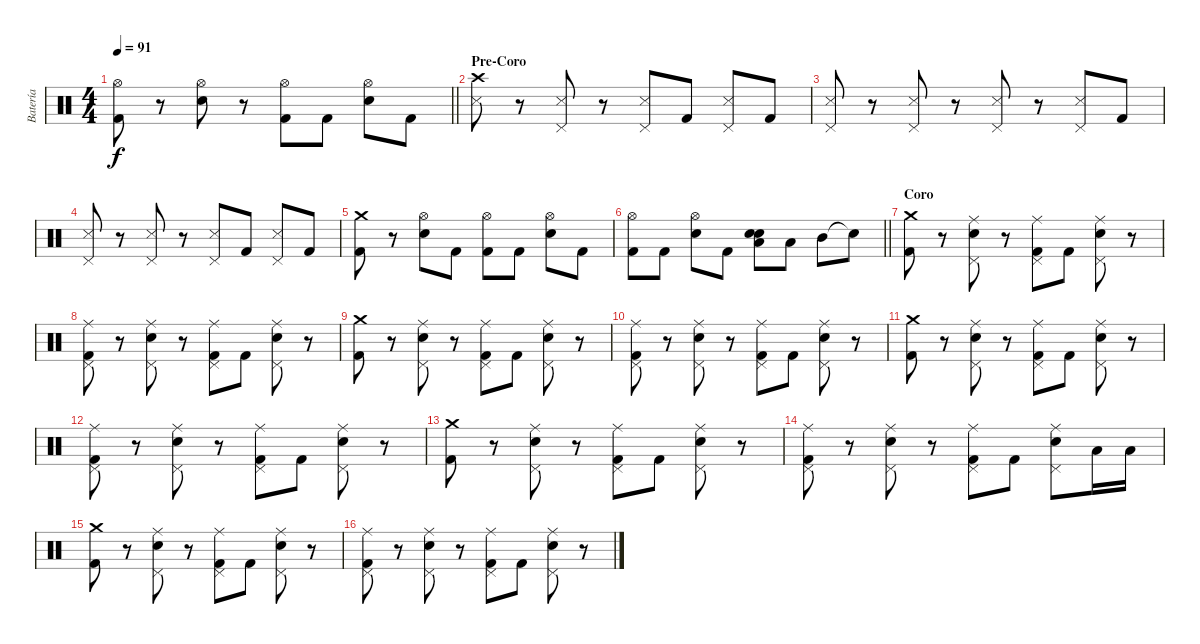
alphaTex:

\track ("Batería" "Batería") {instrument percussion}
\staff {score}
\articulation defaults
\ts (4 4)
\tempo 91
\clef neutral
\barLineRight lightlight
\ks c
("Hi-Hat (open)" "Kick (hit) 2").8{dy f} r.8 ("Hi-Hat (open)" "Snare (hit) 2").8 r.8 ("Hi-Hat (open)" "Kick (hit) 2").8 "Kick (hit) 2".8 ("Hi-Hat (open)" "Snare (hit) 2").8 "Kick (hit) 2".8 |
\section ("" "Pre-Coro")
("Crash high (hit)" "Metronome (hit)").8 r.8 ("Pedal Hi-Hat (hit)" "Metronome (hit)").8 r.8 ("Pedal Hi-Hat (hit)" "Metronome (hit)").8 "Kick (hit) 2".8 ("Pedal Hi-Hat (hit)" "Metronome (hit)").8 "Kick (hit) 2".8 |
("Pedal Hi-Hat (hit)" "Metronome (hit)").8 r.8 ("Pedal Hi-Hat (hit)" "Metronome (hit)").8 r.8 ("Pedal Hi-Hat (hit)" "Metronome (hit)").8 r.8 ("Pedal Hi-Hat (hit)" "Metronome (hit)").8 "Kick (hit) 2".8 |
("Pedal Hi-Hat (hit)" "Metronome (hit)").8 r.8 ("Pedal Hi-Hat (hit)" "Metronome (hit)").8 r.8 ("Pedal Hi-Hat (hit)" "Metronome (hit)").8 "Kick (hit) 2".8 ("Pedal Hi-Hat (hit)" "Metronome (hit)").8 "Kick (hit) 2".8 |
("Crash medium (hit)" "Kick (hit) 2").8 r.8 ("Hi-Hat (open)" "Snare (hit) 2").8 "Kick (hit) 2".8 ("Hi-Hat (open)" "Kick (hit) 2").8 "Kick (hit) 2".8 ("Hi-Hat (open)" "Snare (hit) 2").8 "Kick (hit) 2".8 |
\barLineRight lightlight
("Hi-Hat (open)" "Kick (hit) 2").8 "Kick (hit) 2".8 ("Hi-Hat (open)" "Snare (hit) 2").8 "Kick (hit) 2".8 ("Snare (hit) 2" "Snare (hit) 2" "Low Tom (hit)").8{bd 30} "Low Tom (hit)".8 "Mid Tom (hit)".8 "Snare (hit)"{t}.8 |
\section ("" "Coro")
("Crash medium (hit)" "Kick (hit) 2").8 r.8 ("Pedal Hi-Hat (hit)" "Snare (hit) 2" "Ride (middle)").8 r.8 ("Pedal Hi-Hat (hit)" "Kick (hit) 2" "Ride (middle)").8 "Kick (hit) 2".8 ("Pedal Hi-Hat (hit)" "Snare (hit) 2" "Ride (middle)").8 r.8 |
("Pedal Hi-Hat (hit)" "Ride (middle)" "Kick (hit) 2").8 r.8 ("Pedal Hi-Hat (hit)" "Snare (hit) 2" "Ride (middle)").8 r.8 ("Pedal Hi-Hat (hit)" "Kick (hit) 2" "Ride (middle)").8 "Kick (hit) 2".8 ("Pedal Hi-Hat (hit)" "Snare (hit) 2" "Ride (middle)").8 r.8 |
("Crash medium (hit)" "Kick (hit) 2").8 r.8 ("Pedal Hi-Hat (hit)" "Snare (hit) 2" "Ride (middle)").8 r.8 ("Pedal Hi-Hat (hit)" "Kick (hit) 2" "Ride (middle)").8 "Kick (hit) 2".8 ("Pedal Hi-Hat (hit)" "Snare (hit) 2" "Ride (middle)").8 r.8 |
("Pedal Hi-Hat (hit)" "Ride (middle)" "Kick (hit) 2").8 r.8 ("Pedal Hi-Hat (hit)" "Snare (hit) 2" "Ride (middle)").8 r.8 ("Pedal Hi-Hat (hit)" "Kick (hit) 2" "Ride (middle)").8 "Kick (hit) 2".8 ("Pedal Hi-Hat (hit)" "Snare (hit) 2" "Ride (middle)").8 r.8 |
("Crash medium (hit)" "Kick (hit) 2").8 r.8 ("Pedal Hi-Hat (hit)" "Snare (hit) 2" "Ride (middle)").8 r.8 ("Pedal Hi-Hat (hit)" "Kick (hit) 2" "Ride (middle)").8 "Kick (hit) 2".8 ("Pedal Hi-Hat (hit)" "Snare (hit) 2" "Ride (middle)").8 r.8 |
("Pedal Hi-Hat (hit)" "Ride (middle)" "Kick (hit) 2").8 r.8 ("Pedal Hi-Hat (hit)" "Snare (hit) 2" "Ride (middle)").8 r.8 ("Pedal Hi-Hat (hit)" "Kick (hit) 2" "Ride (middle)").8 "Kick (hit) 2".8 ("Pedal Hi-Hat (hit)" "Snare (hit) 2" "Ride (middle)").8 r.8 |
("Crash medium (hit)" "Kick (hit) 2").8 r.8 ("Pedal Hi-Hat (hit)" "Snare (hit) 2" "Ride (middle)").8 r.8 ("Pedal Hi-Hat (hit)" "Kick (hit) 2" "Ride (middle)").8 "Kick (hit) 2".8 ("Pedal Hi-Hat (hit)" "Snare (hit) 2" "Ride (middle)").8 r.8 |
("Pedal Hi-Hat (hit)" "Ride (middle)" "Kick (hit) 2").8 r.8 ("Pedal Hi-Hat (hit)" "Snare (hit) 2" "Ride (middle)").8 r.8 ("Pedal Hi-Hat (hit)" "Kick (hit) 2" "Ride (middle)").8 "Kick (hit) 2".8 ("Pedal Hi-Hat (hit)" "Snare (hit) 2" "Ride (middle)").8 "Low Tom (hit)".16 "Low Tom (hit)".16 |
("Crash medium (hit)" "Kick (hit) 2").8 r.8 ("Pedal Hi-Hat (hit)" "Snare (hit) 2" "Ride (middle)").8 r.8 ("Pedal Hi-Hat (hit)" "Kick (hit) 2" "Ride (middle)").8 "Kick (hit) 2".8 ("Pedal Hi-Hat (hit)" "Snare (hit) 2" "Ride (middle)").8 r.8 |
("Pedal Hi-Hat (hit)" "Ride (middle)" "Kick (hit) 2").8 r.8 ("Pedal Hi-Hat (hit)" "Snare (hit) 2" "Ride (middle)").8 r.8 ("Pedal Hi-Hat (hit)" "Kick (hit) 2" "Ride (middle)").8 "Kick (hit) 2".8 ("Pedal Hi-Hat (hit)" "Snare (hit) 2" "Ride (middle)").8 r.8
